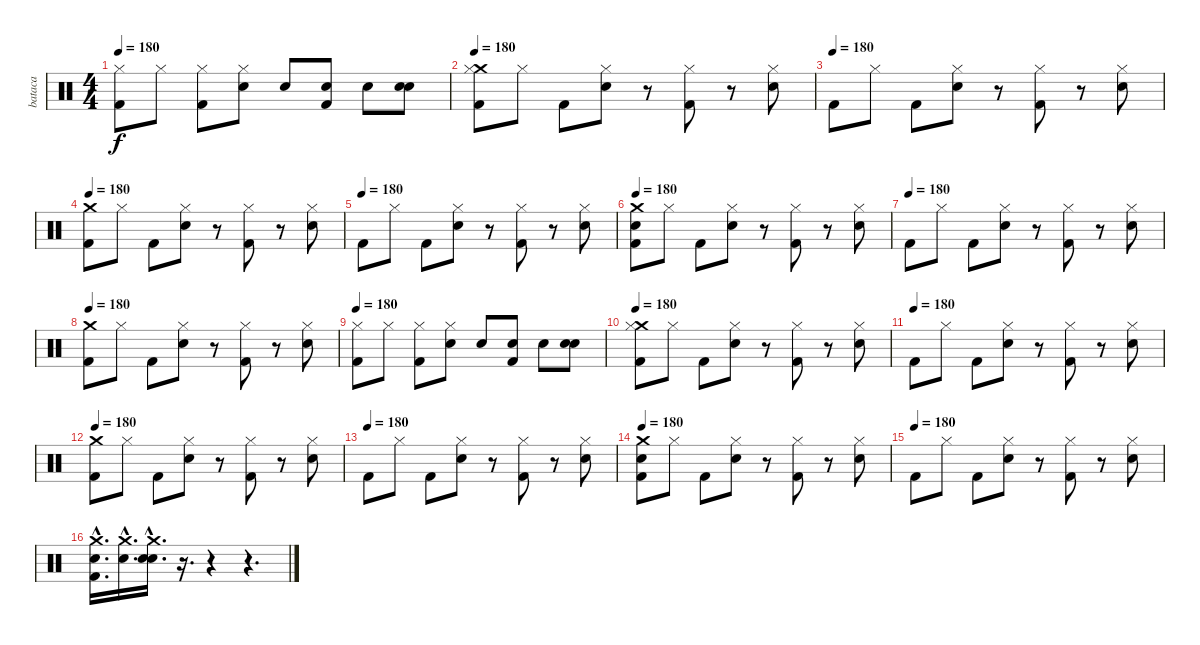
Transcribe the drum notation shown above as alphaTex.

\track ("bataca" "bataca") {instrument percussion}
\staff {score}
\articulation defaults
\ts (4 4)
\tempo 180
\clef neutral
\ks c
("Hi-Hat (closed)" "Kick (hit) 2").8{dy f} "Hi-Hat (closed)".8 ("Hi-Hat (closed)" "Kick (hit) 2").8 ("Hi-Hat (closed)" "Snare (hit) 2").8 "Snare (hit) 2".8 ("Snare (hit) 2" "Kick (hit) 2").8 "Snare (hit) 2".8 ("Snare (hit) 2" "Snare (hit) 2").8 |
\tempo 180
("Crash medium (hit)" "Hi-Hat (closed)" "Kick (hit) 2").8 "Hi-Hat (closed)".8 "Kick (hit) 2".8 ("Hi-Hat (closed)" "Snare (hit) 2").8 r.8 ("Hi-Hat (closed)" "Kick (hit) 2").8 r.8 ("Hi-Hat (closed)" "Snare (hit) 2").8 |
\tempo (180)
"Kick (hit) 2".8 "Hi-Hat (closed)".8 "Kick (hit) 2".8 ("Hi-Hat (closed)" "Snare (hit) 2").8 r.8 ("Hi-Hat (closed)" "Kick (hit) 2").8 r.8 ("Hi-Hat (closed)" "Snare (hit) 2").8 |
\tempo 180
("Crash medium (hit)" "Kick (hit) 2").8 "Hi-Hat (closed)".8 "Kick (hit) 2".8 ("Hi-Hat (closed)" "Snare (hit) 2").8 r.8 ("Hi-Hat (closed)" "Kick (hit) 2").8 r.8 ("Hi-Hat (closed)" "Snare (hit) 2").8 |
\tempo (180)
"Kick (hit) 2".8 "Hi-Hat (closed)".8 "Kick (hit) 2".8 ("Hi-Hat (closed)" "Snare (hit) 2").8 r.8 ("Hi-Hat (closed)" "Kick (hit) 2").8 r.8 ("Hi-Hat (closed)" "Snare (hit) 2").8 |
\tempo 180
("Crash medium (hit)" "Snare (hit) 2" "Kick (hit) 2").8 "Hi-Hat (closed)".8 "Kick (hit) 2".8 ("Hi-Hat (closed)" "Snare (hit) 2").8 r.8 ("Hi-Hat (closed)" "Kick (hit) 2").8 r.8 ("Hi-Hat (closed)" "Snare (hit) 2").8 |
\tempo (180)
"Kick (hit) 2".8 "Hi-Hat (closed)".8 "Kick (hit) 2".8 ("Hi-Hat (closed)" "Snare (hit) 2").8 r.8 ("Hi-Hat (closed)" "Kick (hit) 2").8 r.8 ("Hi-Hat (closed)" "Snare (hit) 2").8 |
\tempo 180
("Crash medium (hit)" "Kick (hit) 2").8 "Hi-Hat (closed)".8 "Kick (hit) 2".8 ("Hi-Hat (closed)" "Snare (hit) 2").8 r.8 ("Hi-Hat (closed)" "Kick (hit) 2").8 r.8 ("Hi-Hat (closed)" "Snare (hit) 2").8 |
\tempo 180
("Hi-Hat (closed)" "Kick (hit) 2").8 "Hi-Hat (closed)".8 ("Hi-Hat (closed)" "Kick (hit) 2").8 ("Hi-Hat (closed)" "Snare (hit) 2").8 "Snare (hit) 2".8 ("Snare (hit) 2" "Kick (hit) 2").8 "Snare (hit) 2".8 ("Snare (hit) 2" "Snare (hit) 2").8 |
\tempo 180
("Crash medium (hit)" "Hi-Hat (closed)" "Kick (hit) 2").8 "Hi-Hat (closed)".8 "Kick (hit) 2".8 ("Hi-Hat (closed)" "Snare (hit) 2").8 r.8 ("Hi-Hat (closed)" "Kick (hit) 2").8 r.8 ("Hi-Hat (closed)" "Snare (hit) 2").8 |
\tempo (180)
"Kick (hit) 2".8 "Hi-Hat (closed)".8 "Kick (hit) 2".8 ("Hi-Hat (closed)" "Snare (hit) 2").8 r.8 ("Hi-Hat (closed)" "Kick (hit) 2").8 r.8 ("Hi-Hat (closed)" "Snare (hit) 2").8 |
\tempo 180
("Crash medium (hit)" "Kick (hit) 2").8 "Hi-Hat (closed)".8 "Kick (hit) 2".8 ("Hi-Hat (closed)" "Snare (hit) 2").8 r.8 ("Hi-Hat (closed)" "Kick (hit) 2").8 r.8 ("Hi-Hat (closed)" "Snare (hit) 2").8 |
\tempo (180)
"Kick (hit) 2".8 "Hi-Hat (closed)".8 "Kick (hit) 2".8 ("Hi-Hat (closed)" "Snare (hit) 2").8 r.8 ("Hi-Hat (closed)" "Kick (hit) 2").8 r.8 ("Hi-Hat (closed)" "Snare (hit) 2").8 |
\tempo 180
("Crash medium (hit)" "Snare (hit) 2" "Kick (hit) 2").8 "Hi-Hat (closed)".8 "Kick (hit) 2".8 ("Hi-Hat (closed)" "Snare (hit) 2").8 r.8 ("Hi-Hat (closed)" "Kick (hit) 2").8 r.8 ("Hi-Hat (closed)" "Snare (hit) 2").8 |
\tempo (180)
"Kick (hit) 2".8 "Hi-Hat (closed)".8 "Kick (hit) 2".8 ("Hi-Hat (closed)" "Snare (hit) 2").8 r.8 ("Hi-Hat (closed)" "Kick (hit) 2").8 r.8 ("Hi-Hat (closed)" "Snare (hit) 2").8 |
("Crash medium (hit)"{hac} "Snare (hit) 2"{hac} "Kick (hit) 2"{hac}).16{d} ("Crash medium (hit)"{hac} "Snare (hit) 2"{hac}).16{d} ("Crash medium (hit)"{hac} "Snare (hit) 2"{hac} "Snare (hit) 2"{hac}).16{d} r.16{d} r.4 r.4{d}
